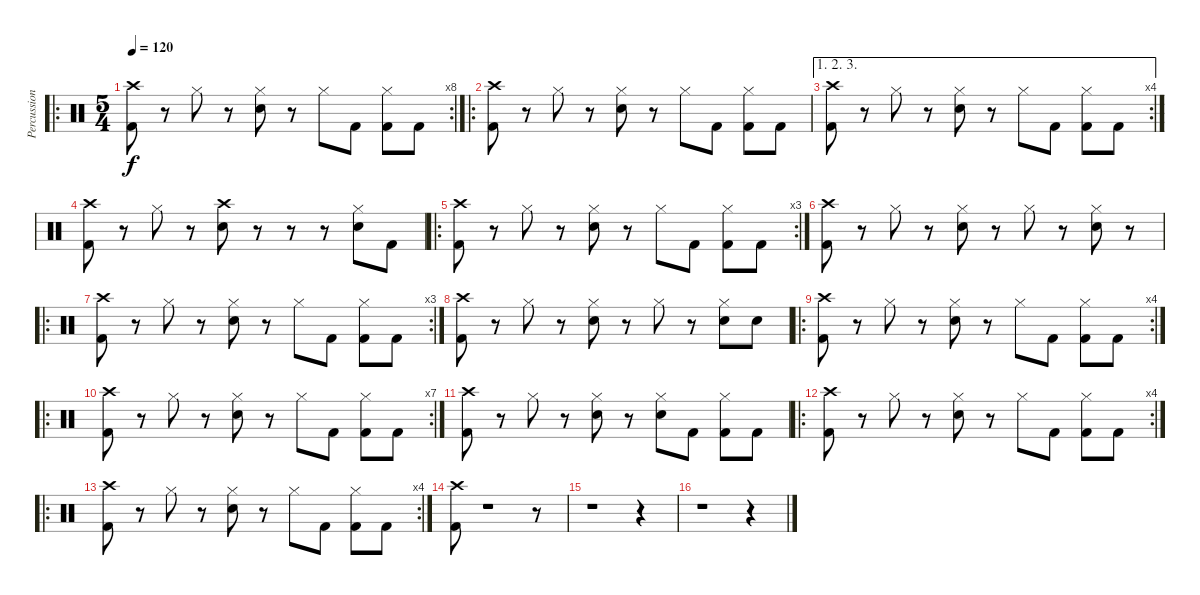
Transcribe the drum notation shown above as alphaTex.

\track ("Percussions" "Percussion") {instrument percussion}
\staff {score}
\articulation defaults
\ro
\rc 8
\ts (5 4)
\tempo 120
\clef neutral
\ks c
("Crash high (hit)" "Kick (hit) 2").8{dy f} r.8 "Hi-Hat (closed)".8 r.8 ("Hi-Hat (closed)" "Snare (hit) 2").8 r.8 "Hi-Hat (closed)".8 "Kick (hit) 2".8 ("Hi-Hat (closed)" "Kick (hit) 2").8 "Kick (hit) 2".8 |
\ro
("Crash high (hit)" "Kick (hit) 2").8 r.8 "Hi-Hat (closed)".8 r.8 ("Hi-Hat (closed)" "Snare (hit) 2").8 r.8 "Hi-Hat (closed)".8 "Kick (hit) 2".8 ("Hi-Hat (closed)" "Kick (hit) 2").8 "Kick (hit) 2".8 |
\ae (1 2 3)
\rc 4
("Crash high (hit)" "Kick (hit) 2").8 r.8 "Hi-Hat (closed)".8 r.8 ("Hi-Hat (closed)" "Snare (hit) 2").8 r.8 "Hi-Hat (closed)".8 "Kick (hit) 2".8 ("Hi-Hat (closed)" "Kick (hit) 2").8 "Kick (hit) 2".8 |
("Crash high (hit)" "Kick (hit) 2").8 r.8 "Hi-Hat (closed)".8 r.8 ("Crash high (hit)" "Snare (hit) 2").8 r.8 r.8 r.8 ("Hi-Hat (closed)" "Snare (hit) 2").8 "Kick (hit) 2".8 |
\ro
\rc 3
("Crash high (hit)" "Kick (hit) 2").8 r.8 "Hi-Hat (closed)".8 r.8 ("Hi-Hat (closed)" "Snare (hit) 2").8 r.8 "Hi-Hat (closed)".8 "Kick (hit) 2".8 ("Hi-Hat (closed)" "Kick (hit) 2").8 "Kick (hit) 2".8 |
("Crash high (hit)" "Kick (hit) 2").8 r.8 "Hi-Hat (closed)".8 r.8 ("Hi-Hat (closed)" "Snare (hit) 2").8 r.8 "Hi-Hat (closed)".8 r.8 ("Hi-Hat (closed)" "Snare (hit) 2").8 r.8 |
\ro
\rc 3
("Crash high (hit)" "Kick (hit) 2").8 r.8 "Hi-Hat (closed)".8 r.8 ("Hi-Hat (closed)" "Snare (hit) 2").8 r.8 "Hi-Hat (closed)".8 "Kick (hit) 2".8 ("Hi-Hat (closed)" "Kick (hit) 2").8 "Kick (hit) 2".8 |
("Crash high (hit)" "Kick (hit) 2").8 r.8 "Hi-Hat (closed)".8 r.8 ("Hi-Hat (closed)" "Snare (hit) 2").8 r.8 "Hi-Hat (closed)".8 r.8 ("Hi-Hat (closed)" "Snare (hit) 2").8 "Snare (hit) 2".8 |
\ro
\rc 4
("Crash high (hit)" "Kick (hit) 2").8 r.8 "Hi-Hat (closed)".8 r.8 ("Hi-Hat (closed)" "Snare (hit) 2").8 r.8 "Hi-Hat (closed)".8 "Kick (hit) 2".8 ("Hi-Hat (closed)" "Kick (hit) 2").8 "Kick (hit) 2".8 |
\ro
\rc 7
("Crash high (hit)" "Kick (hit) 2").8 r.8 "Hi-Hat (closed)".8 r.8 ("Hi-Hat (closed)" "Snare (hit) 2").8 r.8 "Hi-Hat (closed)".8 "Kick (hit) 2".8 ("Hi-Hat (closed)" "Kick (hit) 2").8 "Kick (hit) 2".8 |
("Crash high (hit)" "Kick (hit) 2").8 r.8 "Hi-Hat (closed)".8 r.8 ("Hi-Hat (closed)" "Snare (hit) 2").8 r.8 ("Hi-Hat (closed)" "Snare (hit) 2").8 "Kick (hit) 2".8 ("Hi-Hat (closed)" "Kick (hit) 2").8 "Kick (hit) 2".8 |
\ro
\rc 4
("Crash high (hit)" "Kick (hit) 2").8 r.8 "Hi-Hat (closed)".8 r.8 ("Hi-Hat (closed)" "Snare (hit) 2").8 r.8 "Hi-Hat (closed)".8 "Kick (hit) 2".8 ("Hi-Hat (closed)" "Kick (hit) 2").8 "Kick (hit) 2".8 |
\ro
\rc 4
("Crash high (hit)" "Kick (hit) 2").8 r.8 "Hi-Hat (closed)".8 r.8 ("Hi-Hat (closed)" "Snare (hit) 2").8 r.8 "Hi-Hat (closed)".8 "Kick (hit) 2".8 ("Hi-Hat (closed)" "Kick (hit) 2").8 "Kick (hit) 2".8 |
("Crash high (hit)" "Kick (hit) 2").8 r.1 r.8 |
r.1 r.4 |
r.1 r.4
